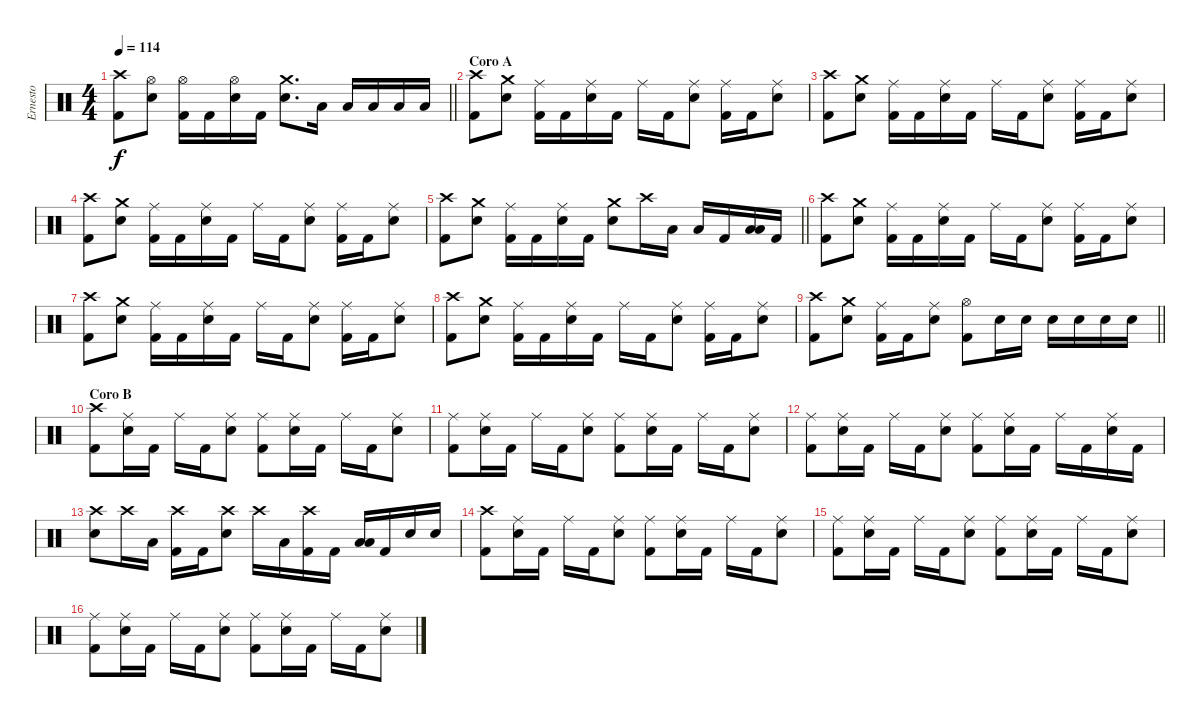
\track ("Ernesto" "Ernesto") {instrument percussion}
\staff
\articulation defaults
\ts (4 4)
\tempo 114
\clef neutral
\barLineRight lightlight
\ks c
("Crash high (hit)" "Kick (hit) 2").8{dy f} ("Hi-Hat (open)" "Electric Snare (hit)").8 ("Hi-Hat (open)" "Kick (hit) 2").16 "Kick (hit) 2".16 ("Hi-Hat (open)" "Electric Snare (hit)").16 "Kick (hit) 2".16 ("Crash medium (hit)" "Electric Snare (hit)").8{d} "Low Tom (hit)".16 "Low Tom (hit)".16 "Low Tom (hit)".16 "Low Floor Tom (hit)".16 "Low Floor Tom (hit)".16 |
\section ("" "Coro A")
("Crash high (hit)" "Kick (hit) 2").8 ("Crash medium (hit)" "Electric Snare (hit)").8 ("Ride (middle)" "Kick (hit) 2").16 "Kick (hit) 2".16 ("Ride (middle)" "Electric Snare (hit)").16 "Kick (hit) 2".16 "Ride (middle)".16 "Kick (hit) 2".16 ("Ride (middle)" "Electric Snare (hit)").8 ("Ride (middle)" "Kick (hit) 2").16 "Kick (hit) 2".16 ("Ride (middle)" "Electric Snare (hit)").8 |
("Crash high (hit)" "Kick (hit) 2").8 ("Crash medium (hit)" "Electric Snare (hit)").8 ("Ride (middle)" "Kick (hit) 2").16 "Kick (hit) 2".16 ("Ride (middle)" "Electric Snare (hit)").16 "Kick (hit) 2".16 "Ride (middle)".16 "Kick (hit) 2".16 ("Ride (middle)" "Electric Snare (hit)").8 ("Ride (middle)" "Kick (hit) 2").16 "Kick (hit) 2".16 ("Ride (middle)" "Electric Snare (hit)").8 |
("Crash high (hit)" "Kick (hit) 2").8 ("Crash medium (hit)" "Electric Snare (hit)").8 ("Ride (middle)" "Kick (hit) 2").16 "Kick (hit) 2".16 ("Ride (middle)" "Electric Snare (hit)").16 "Kick (hit) 2".16 "Ride (middle)".16 "Kick (hit) 2".16 ("Ride (middle)" "Electric Snare (hit)").8 ("Ride (middle)" "Kick (hit) 2").16 "Kick (hit) 2".16 ("Ride (middle)" "Electric Snare (hit)").8 |
\barLineRight lightlight
("Crash high (hit)" "Kick (hit) 2").8 ("Crash medium (hit)" "Electric Snare (hit)").8 ("Ride (middle)" "Kick (hit) 2").16 "Kick (hit) 2".16 ("Ride (middle)" "Electric Snare (hit)").16 "Kick (hit) 2".16 ("Crash medium (hit)" "Electric Snare (hit)").8 "Crash high (hit)".16 "Low Tom (hit)".16 "Low Floor Tom (hit)".16 "Kick (hit) 2".16 ("Low Tom (hit)" "Low Floor Tom (hit)").16 "Kick (hit) 2".16 |
("Crash high (hit)" "Kick (hit) 2").8 ("Crash medium (hit)" "Electric Snare (hit)").8 ("Ride (middle)" "Kick (hit) 2").16 "Kick (hit) 2".16 ("Ride (middle)" "Electric Snare (hit)").16 "Kick (hit) 2".16 "Ride (middle)".16 "Kick (hit) 2".16 ("Ride (middle)" "Electric Snare (hit)").8 ("Ride (middle)" "Kick (hit) 2").16 "Kick (hit) 2".16 ("Ride (middle)" "Electric Snare (hit)").8 |
("Crash high (hit)" "Kick (hit) 2").8 ("Crash medium (hit)" "Electric Snare (hit)").8 ("Ride (middle)" "Kick (hit) 2").16 "Kick (hit) 2".16 ("Ride (middle)" "Electric Snare (hit)").16 "Kick (hit) 2".16 "Ride (middle)".16 "Kick (hit) 2".16 ("Ride (middle)" "Electric Snare (hit)").8 ("Ride (middle)" "Kick (hit) 2").16 "Kick (hit) 2".16 ("Ride (middle)" "Electric Snare (hit)").8 |
("Crash high (hit)" "Kick (hit) 2").8 ("Crash medium (hit)" "Electric Snare (hit)").8 ("Ride (middle)" "Kick (hit) 2").16 "Kick (hit) 2".16 ("Ride (middle)" "Electric Snare (hit)").16 "Kick (hit) 2".16 "Ride (middle)".16 "Kick (hit) 2".16 ("Ride (middle)" "Electric Snare (hit)").8 ("Ride (middle)" "Kick (hit) 2").16 "Kick (hit) 2".16 ("Ride (middle)" "Electric Snare (hit)").8 |
\barLineRight lightlight
("Crash high (hit)" "Kick (hit) 2").8 ("Crash medium (hit)" "Electric Snare (hit)").8 ("Ride (middle)" "Kick (hit) 2").16 "Kick (hit) 2".16 ("Ride (middle)" "Electric Snare (hit)").8 ("Hi-Hat (open)" "Kick (hit) 2").8 "Electric Snare (hit)".16 "Electric Snare (hit)".16 "Electric Snare (hit)".16 "Electric Snare (hit)".16 "Electric Snare (hit)".16 "Electric Snare (hit)".16 |
\section ("" "Coro B")
("Crash high (hit)" "Kick (hit) 2").8 ("Ride (middle)" "Electric Snare (hit)").16 "Kick (hit) 2".16 "Ride (middle)".16 "Kick (hit) 2".16 ("Ride (middle)" "Electric Snare (hit)").8 ("Ride (middle)" "Kick (hit) 2").8 ("Ride (middle)" "Electric Snare (hit)").16 "Kick (hit) 2".16 "Ride (middle)".16 "Kick (hit) 2".16 ("Ride (middle)" "Electric Snare (hit)").8 |
("Ride (middle)" "Kick (hit) 2").8 ("Ride (middle)" "Electric Snare (hit)").16 "Kick (hit) 2".16 "Ride (middle)".16 "Kick (hit) 2".16 ("Ride (middle)" "Electric Snare (hit)").8 ("Ride (middle)" "Kick (hit) 2").8 ("Ride (middle)" "Electric Snare (hit)").16 "Kick (hit) 2".16 "Ride (middle)".16 "Kick (hit) 2".16 ("Ride (middle)" "Electric Snare (hit)").8 |
("Ride (middle)" "Kick (hit) 2").8 ("Ride (middle)" "Electric Snare (hit)").16 "Kick (hit) 2".16 "Ride (middle)".16 "Kick (hit) 2".16 ("Ride (middle)" "Electric Snare (hit)").8 ("Ride (middle)" "Kick (hit) 2").8 ("Ride (middle)" "Electric Snare (hit)").16 "Kick (hit) 2".16 "Ride (middle)".16 "Kick (hit) 2".16 ("Ride (middle)" "Electric Snare (hit)").16 "Kick (hit) 2".16 |
("Crash high (hit)" "Electric Snare (hit)").8 "Crash high (hit)".16 "Low Tom (hit)".16 ("Crash high (hit)" "Kick (hit) 2").16 "Kick (hit) 2".16 ("Crash high (hit)" "Electric Snare (hit)").8 "Crash high (hit)".16 "Low Tom (hit)".16 ("Crash high (hit)" "Kick (hit) 2").16 "Kick (hit) 2".16 ("Low Tom (hit)" "Low Floor Tom (hit)").16 "Kick (hit) 2".16 "Electric Snare (hit)".16 "Electric Snare (hit)".16 |
("Crash high (hit)" "Kick (hit) 2").8 ("Ride (middle)" "Electric Snare (hit)").16 "Kick (hit) 2".16 "Ride (middle)".16 "Kick (hit) 2".16 ("Ride (middle)" "Electric Snare (hit)").8 ("Ride (middle)" "Kick (hit) 2").8 ("Ride (middle)" "Electric Snare (hit)").16 "Kick (hit) 2".16 "Ride (middle)".16 "Kick (hit) 2".16 ("Ride (middle)" "Electric Snare (hit)").8 |
("Ride (middle)" "Kick (hit) 2").8 ("Ride (middle)" "Electric Snare (hit)").16 "Kick (hit) 2".16 "Ride (middle)".16 "Kick (hit) 2".16 ("Ride (middle)" "Electric Snare (hit)").8 ("Ride (middle)" "Kick (hit) 2").8 ("Ride (middle)" "Electric Snare (hit)").16 "Kick (hit) 2".16 "Ride (middle)".16 "Kick (hit) 2".16 ("Ride (middle)" "Electric Snare (hit)").8 |
("Ride (middle)" "Kick (hit) 2").8 ("Ride (middle)" "Electric Snare (hit)").16 "Kick (hit) 2".16 "Ride (middle)".16 "Kick (hit) 2".16 ("Ride (middle)" "Electric Snare (hit)").8 ("Ride (middle)" "Kick (hit) 2").8 ("Ride (middle)" "Electric Snare (hit)").16 "Kick (hit) 2".16 "Ride (middle)".16 "Kick (hit) 2".16 ("Ride (middle)" "Electric Snare (hit)").8
